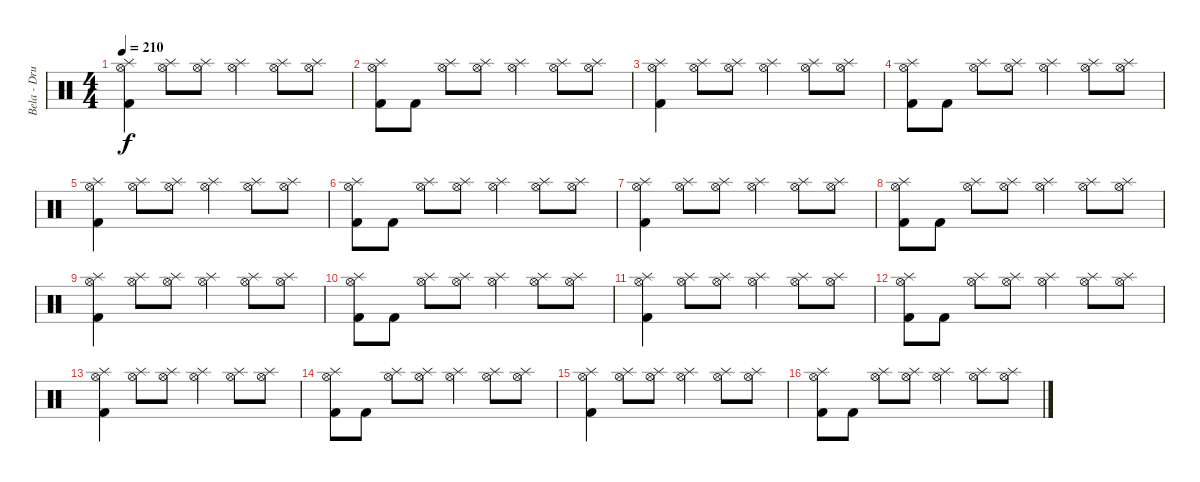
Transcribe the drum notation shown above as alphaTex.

\track ("Bela - Drums" "Bela - Dru") {instrument percussion}
\staff {score}
\articulation defaults
\ts (4 4)
\tempo 210
\clef neutral
\ks c
("Hi-Hat (open)" "Splash (hit)" "Kick (hit) 2").4{dy f} ("Hi-Hat (open)" "Splash (hit)").8 ("Hi-Hat (open)" "Splash (hit)").8 ("Hi-Hat (open)" "Splash (hit)").4 ("Hi-Hat (open)" "Splash (hit)").8 ("Hi-Hat (open)" "Splash (hit)").8 |
("Hi-Hat (open)" "Splash (hit)" "Kick (hit) 2").8 "Kick (hit) 2".8 ("Hi-Hat (open)" "Splash (hit)").8 ("Hi-Hat (open)" "Splash (hit)").8 ("Hi-Hat (open)" "Splash (hit)").4 ("Hi-Hat (open)" "Splash (hit)").8 ("Hi-Hat (open)" "Splash (hit)").8 |
("Hi-Hat (open)" "Splash (hit)" "Kick (hit) 2").4 ("Hi-Hat (open)" "Splash (hit)").8 ("Hi-Hat (open)" "Splash (hit)").8 ("Hi-Hat (open)" "Splash (hit)").4 ("Hi-Hat (open)" "Splash (hit)").8 ("Hi-Hat (open)" "Splash (hit)").8 |
("Hi-Hat (open)" "Splash (hit)" "Kick (hit) 2").8 "Kick (hit) 2".8 ("Hi-Hat (open)" "Splash (hit)").8 ("Hi-Hat (open)" "Splash (hit)").8 ("Hi-Hat (open)" "Splash (hit)").4 ("Hi-Hat (open)" "Splash (hit)").8 ("Hi-Hat (open)" "Splash (hit)").8 |
("Hi-Hat (open)" "Splash (hit)" "Kick (hit) 2").4 ("Hi-Hat (open)" "Splash (hit)").8 ("Hi-Hat (open)" "Splash (hit)").8 ("Hi-Hat (open)" "Splash (hit)").4 ("Hi-Hat (open)" "Splash (hit)").8 ("Hi-Hat (open)" "Splash (hit)").8 |
("Hi-Hat (open)" "Splash (hit)" "Kick (hit) 2").8 "Kick (hit) 2".8 ("Hi-Hat (open)" "Splash (hit)").8 ("Hi-Hat (open)" "Splash (hit)").8 ("Hi-Hat (open)" "Splash (hit)").4 ("Hi-Hat (open)" "Splash (hit)").8 ("Hi-Hat (open)" "Splash (hit)").8 |
("Hi-Hat (open)" "Splash (hit)" "Kick (hit) 2").4 ("Hi-Hat (open)" "Splash (hit)").8 ("Hi-Hat (open)" "Splash (hit)").8 ("Hi-Hat (open)" "Splash (hit)").4 ("Hi-Hat (open)" "Splash (hit)").8 ("Hi-Hat (open)" "Splash (hit)").8 |
("Hi-Hat (open)" "Splash (hit)" "Kick (hit) 2").8 "Kick (hit) 2".8 ("Hi-Hat (open)" "Splash (hit)").8 ("Hi-Hat (open)" "Splash (hit)").8 ("Hi-Hat (open)" "Splash (hit)").4 ("Hi-Hat (open)" "Splash (hit)").8 ("Hi-Hat (open)" "Splash (hit)").8 |
("Hi-Hat (open)" "Splash (hit)" "Kick (hit) 2").4 ("Hi-Hat (open)" "Splash (hit)").8 ("Hi-Hat (open)" "Splash (hit)").8 ("Hi-Hat (open)" "Splash (hit)").4 ("Hi-Hat (open)" "Splash (hit)").8 ("Hi-Hat (open)" "Splash (hit)").8 |
("Hi-Hat (open)" "Splash (hit)" "Kick (hit) 2").8 "Kick (hit) 2".8 ("Hi-Hat (open)" "Splash (hit)").8 ("Hi-Hat (open)" "Splash (hit)").8 ("Hi-Hat (open)" "Splash (hit)").4 ("Hi-Hat (open)" "Splash (hit)").8 ("Hi-Hat (open)" "Splash (hit)").8 |
("Hi-Hat (open)" "Splash (hit)" "Kick (hit) 2").4 ("Hi-Hat (open)" "Splash (hit)").8 ("Hi-Hat (open)" "Splash (hit)").8 ("Hi-Hat (open)" "Splash (hit)").4 ("Hi-Hat (open)" "Splash (hit)").8 ("Hi-Hat (open)" "Splash (hit)").8 |
("Hi-Hat (open)" "Splash (hit)" "Kick (hit) 2").8 "Kick (hit) 2".8 ("Hi-Hat (open)" "Splash (hit)").8 ("Hi-Hat (open)" "Splash (hit)").8 ("Hi-Hat (open)" "Splash (hit)").4 ("Hi-Hat (open)" "Splash (hit)").8 ("Hi-Hat (open)" "Splash (hit)").8 |
("Hi-Hat (open)" "Splash (hit)" "Kick (hit) 2").4 ("Hi-Hat (open)" "Splash (hit)").8 ("Hi-Hat (open)" "Splash (hit)").8 ("Hi-Hat (open)" "Splash (hit)").4 ("Hi-Hat (open)" "Splash (hit)").8 ("Hi-Hat (open)" "Splash (hit)").8 |
("Hi-Hat (open)" "Splash (hit)" "Kick (hit) 2").8 "Kick (hit) 2".8 ("Hi-Hat (open)" "Splash (hit)").8 ("Hi-Hat (open)" "Splash (hit)").8 ("Hi-Hat (open)" "Splash (hit)").4 ("Hi-Hat (open)" "Splash (hit)").8 ("Hi-Hat (open)" "Splash (hit)").8 |
("Hi-Hat (open)" "Splash (hit)" "Kick (hit) 2").4 ("Hi-Hat (open)" "Splash (hit)").8 ("Hi-Hat (open)" "Splash (hit)").8 ("Hi-Hat (open)" "Splash (hit)").4 ("Hi-Hat (open)" "Splash (hit)").8 ("Hi-Hat (open)" "Splash (hit)").8 |
("Hi-Hat (open)" "Splash (hit)" "Kick (hit) 2").8 "Kick (hit) 2".8 ("Hi-Hat (open)" "Splash (hit)").8 ("Hi-Hat (open)" "Splash (hit)").8 ("Hi-Hat (open)" "Splash (hit)").4 ("Hi-Hat (open)" "Splash (hit)").8 ("Hi-Hat (open)" "Splash (hit)").8
